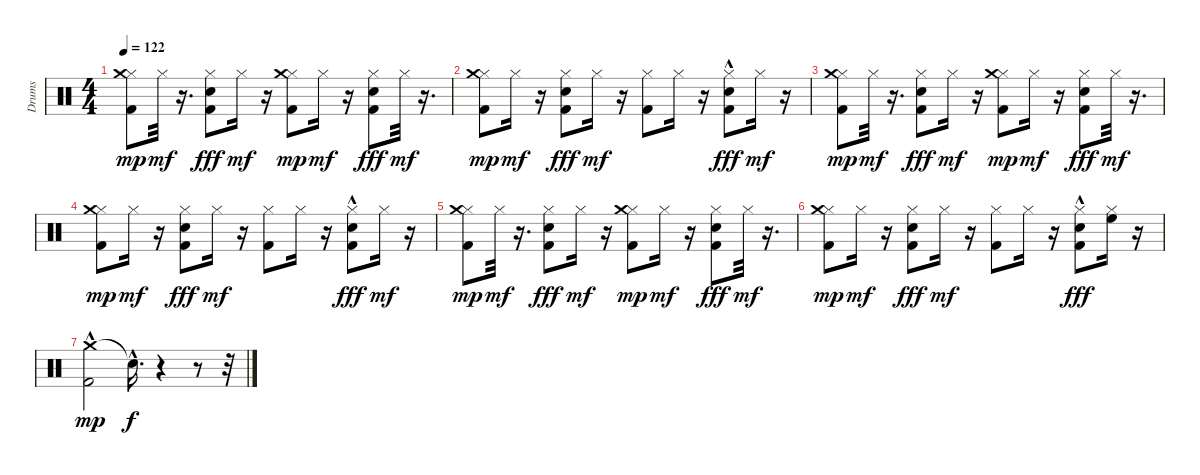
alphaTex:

\track ("Drums" "Drums") {instrument percussion}
\staff {score}
\articulation defaults
\ts (4 4)
\tempo 122
\clef neutral
\ks c
("Hi-Hat (closed)" "Crash medium (hit)" "Kick (hit) 2").8{dy mp} "Hi-Hat (closed)".32{dy mf} r.16{d} ("Hi-Hat (closed)" "Electric Snare (hit)" "Kick (hit) 2").8{dy fff} "Hi-Hat (closed)".16{dy mf} r.16 ("Hi-Hat (closed)" "Crash medium (hit)" "Kick (hit) 2").8{dy mp} "Hi-Hat (closed)".16{dy mf} r.16 ("Hi-Hat (closed)" "Electric Snare (hit)" "Kick (hit) 2").8{dy fff} "Hi-Hat (closed)".32{dy mf} r.16{d} |
("Hi-Hat (closed)" "Crash medium (hit)" "Kick (hit) 2").8{dy mp} "Hi-Hat (closed)".16{dy mf} r.16 ("Hi-Hat (closed)" "Electric Snare (hit)" "Kick (hit) 2").8{dy fff} "Hi-Hat (closed)".16{dy mf} r.16 ("Hi-Hat (closed)" "Kick (hit) 2").8 "Hi-Hat (closed)".16 r.16 ("Hi-Hat (closed)" "Electric Snare (hit)" "Kick (hit) 2"{hac}).8{dy fff} "Hi-Hat (closed)".16{dy mf} r.16 |
("Hi-Hat (closed)" "Crash medium (hit)" "Kick (hit) 2").8{dy mp} "Hi-Hat (closed)".32{dy mf} r.16{d} ("Hi-Hat (closed)" "Electric Snare (hit)" "Kick (hit) 2").8{dy fff} "Hi-Hat (closed)".16{dy mf} r.16 ("Hi-Hat (closed)" "Crash medium (hit)" "Kick (hit) 2").8{dy mp} "Hi-Hat (closed)".16{dy mf} r.16 ("Hi-Hat (closed)" "Electric Snare (hit)" "Kick (hit) 2").8{dy fff} "Hi-Hat (closed)".32{dy mf} r.16{d} |
("Hi-Hat (closed)" "Crash medium (hit)" "Kick (hit) 2").8{dy mp} "Hi-Hat (closed)".16{dy mf} r.16 ("Hi-Hat (closed)" "Electric Snare (hit)" "Kick (hit) 2").8{dy fff} "Hi-Hat (closed)".16{dy mf} r.16 ("Hi-Hat (closed)" "Kick (hit) 2").8 "Hi-Hat (closed)".16 r.16 ("Hi-Hat (closed)" "Electric Snare (hit)" "Kick (hit) 2"{hac}).8{dy fff} "Hi-Hat (closed)".16{dy mf} r.16 |
("Hi-Hat (closed)" "Crash medium (hit)" "Kick (hit) 2").8{dy mp} "Hi-Hat (closed)".32{dy mf} r.16{d} ("Hi-Hat (closed)" "Electric Snare (hit)" "Kick (hit) 2").8{dy fff} "Hi-Hat (closed)".16{dy mf} r.16 ("Hi-Hat (closed)" "Crash medium (hit)" "Kick (hit) 2").8{dy mp} "Hi-Hat (closed)".16{dy mf} r.16 ("Hi-Hat (closed)" "Electric Snare (hit)" "Kick (hit) 2").8{dy fff} "Hi-Hat (closed)".32{dy mf} r.16{d} |
("Hi-Hat (closed)" "Crash medium (hit)" "Kick (hit) 2").8{dy mp} "Hi-Hat (closed)".16{dy mf} r.16 ("Hi-Hat (closed)" "Electric Snare (hit)" "Kick (hit) 2").8{dy fff} "Hi-Hat (closed)".16{dy mf} r.16 ("Hi-Hat (closed)" "Kick (hit) 2").8 "Hi-Hat (closed)".16 r.16 ("Hi-Hat (closed)" "Electric Snare (hit)" "Kick (hit) 2"{hac}).8{dy fff} ("Hi-Hat (closed)" "High Floor Tom (hit)").16 r.16 |
("Crash medium (hit)" "Kick (hit) 2"{hac}).2{dy mp} "Snare (hit)"{hac t}.16{d dy f} r.4 r.8 r.32
